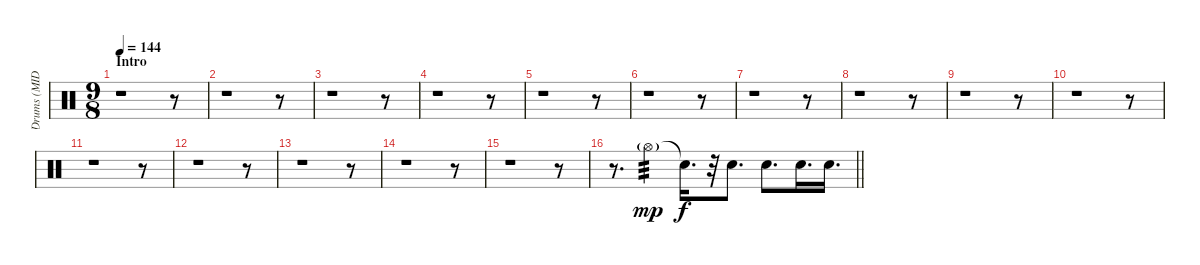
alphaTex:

\track ("Drums (MIDI!)" "Drums (MID") {instrument percussion}
\staff {score}
\articulation defaults
\ts (9 8)
\section ("" "Intro")
\tempo 144
\clef neutral
\ks c
r.1{dy mp} r.8 |
r.1 r.8 |
r.1 r.8 |
r.1 r.8 |
r.1 r.8 |
r.1 r.8 |
r.1 r.8 |
r.1 r.8 |
r.1 r.8 |
r.1 r.8 |
r.1 r.8 |
r.1 r.8 |
r.1 r.8 |
r.1 r.8 |
r.1 r.8 |
\barLineRight lightlight
r.8{d} "Hi-Hat (open)"{g}.4{tp 3} "Snare (hit)"{t}.16{d dy f} r.32 "Electric Snare (hit)".8{d} "Electric Snare (hit)".8{d} "Electric Snare (hit)".16{d} "Electric Snare (hit)".16{d}
